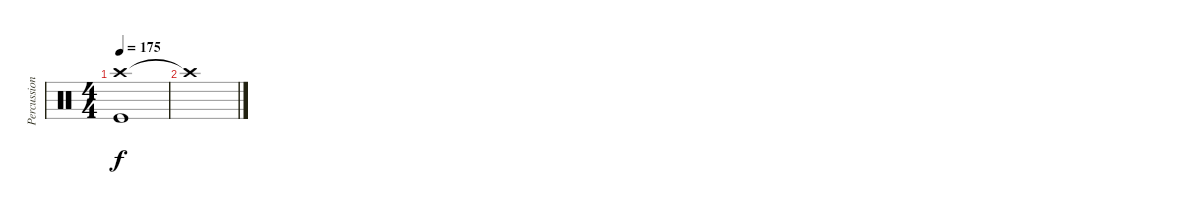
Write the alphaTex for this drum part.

\track ("Percussions" "Percussion") {instrument percussion}
\staff {score}
\articulation defaults
\ts (4 4)
\tempo 175
\clef neutral
\ks c
("Crash high (hit)" "Kick (hit)").1{dy f} |
"Crash high (hit)"{t}.1
